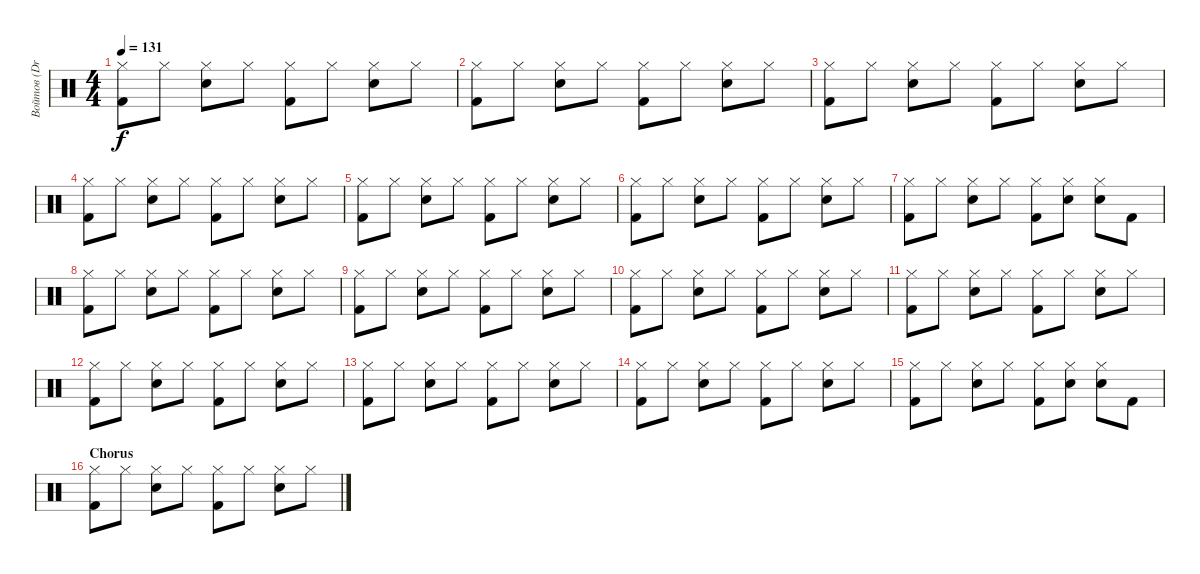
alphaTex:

\track ("Войтов (Drums)" "Войтов (Dr") {instrument percussion}
\staff {score}
\articulation defaults
\ts (4 4)
\tempo 131
\clef neutral
\ks c
("Kick (hit) 2" "Hi-Hat (closed)").8{dy f} "Hi-Hat (closed)".8 ("Electric Snare (hit)" "Hi-Hat (closed)").8 "Hi-Hat (closed)".8 ("Kick (hit) 2" "Hi-Hat (closed)").8 "Hi-Hat (closed)".8 ("Electric Snare (hit)" "Hi-Hat (closed)").8 "Hi-Hat (closed)".8 |
("Kick (hit) 2" "Hi-Hat (closed)").8 "Hi-Hat (closed)".8 ("Electric Snare (hit)" "Hi-Hat (closed)").8 "Hi-Hat (closed)".8 ("Kick (hit) 2" "Hi-Hat (closed)").8 "Hi-Hat (closed)".8 ("Electric Snare (hit)" "Hi-Hat (closed)").8 "Hi-Hat (closed)".8 |
("Kick (hit) 2" "Hi-Hat (closed)").8 "Hi-Hat (closed)".8 ("Electric Snare (hit)" "Hi-Hat (closed)").8 "Hi-Hat (closed)".8 ("Kick (hit) 2" "Hi-Hat (closed)").8 "Hi-Hat (closed)".8 ("Electric Snare (hit)" "Hi-Hat (closed)").8 "Hi-Hat (closed)".8 |
("Kick (hit) 2" "Hi-Hat (closed)").8 "Hi-Hat (closed)".8 ("Electric Snare (hit)" "Hi-Hat (closed)").8 "Hi-Hat (closed)".8 ("Kick (hit) 2" "Hi-Hat (closed)").8 "Hi-Hat (closed)".8 ("Electric Snare (hit)" "Hi-Hat (closed)").8 "Hi-Hat (closed)".8 |
("Kick (hit) 2" "Hi-Hat (closed)").8 "Hi-Hat (closed)".8 ("Electric Snare (hit)" "Hi-Hat (closed)").8 "Hi-Hat (closed)".8 ("Kick (hit) 2" "Hi-Hat (closed)").8 "Hi-Hat (closed)".8 ("Electric Snare (hit)" "Hi-Hat (closed)").8 "Hi-Hat (closed)".8 |
("Kick (hit) 2" "Hi-Hat (closed)").8 "Hi-Hat (closed)".8 ("Electric Snare (hit)" "Hi-Hat (closed)").8 "Hi-Hat (closed)".8 ("Kick (hit) 2" "Hi-Hat (closed)").8 "Hi-Hat (closed)".8 ("Electric Snare (hit)" "Hi-Hat (closed)").8 "Hi-Hat (closed)".8 |
("Kick (hit) 2" "Hi-Hat (closed)").8 "Hi-Hat (closed)".8 ("Electric Snare (hit)" "Hi-Hat (closed)").8 "Hi-Hat (closed)".8 ("Kick (hit) 2" "Hi-Hat (closed)").8 ("Electric Snare (hit)" "Hi-Hat (closed)").8 ("Electric Snare (hit)" "Hi-Hat (closed)").8 "Kick (hit) 2".8 |
("Kick (hit) 2" "Hi-Hat (closed)").8 "Hi-Hat (closed)".8 ("Electric Snare (hit)" "Hi-Hat (closed)").8 "Hi-Hat (closed)".8 ("Kick (hit) 2" "Hi-Hat (closed)").8 "Hi-Hat (closed)".8 ("Electric Snare (hit)" "Hi-Hat (closed)").8 "Hi-Hat (closed)".8 |
("Kick (hit) 2" "Hi-Hat (closed)").8 "Hi-Hat (closed)".8 ("Electric Snare (hit)" "Hi-Hat (closed)").8 "Hi-Hat (closed)".8 ("Kick (hit) 2" "Hi-Hat (closed)").8 "Hi-Hat (closed)".8 ("Electric Snare (hit)" "Hi-Hat (closed)").8 "Hi-Hat (closed)".8 |
("Kick (hit) 2" "Hi-Hat (closed)").8 "Hi-Hat (closed)".8 ("Electric Snare (hit)" "Hi-Hat (closed)").8 "Hi-Hat (closed)".8 ("Kick (hit) 2" "Hi-Hat (closed)").8 "Hi-Hat (closed)".8 ("Electric Snare (hit)" "Hi-Hat (closed)").8 "Hi-Hat (closed)".8 |
("Kick (hit) 2" "Hi-Hat (closed)").8 "Hi-Hat (closed)".8 ("Electric Snare (hit)" "Hi-Hat (closed)").8 "Hi-Hat (closed)".8 ("Kick (hit) 2" "Hi-Hat (closed)").8 "Hi-Hat (closed)".8 ("Electric Snare (hit)" "Hi-Hat (closed)").8 "Hi-Hat (closed)".8 |
("Kick (hit) 2" "Hi-Hat (closed)").8 "Hi-Hat (closed)".8 ("Electric Snare (hit)" "Hi-Hat (closed)").8 "Hi-Hat (closed)".8 ("Kick (hit) 2" "Hi-Hat (closed)").8 "Hi-Hat (closed)".8 ("Electric Snare (hit)" "Hi-Hat (closed)").8 "Hi-Hat (closed)".8 |
("Kick (hit) 2" "Hi-Hat (closed)").8 "Hi-Hat (closed)".8 ("Electric Snare (hit)" "Hi-Hat (closed)").8 "Hi-Hat (closed)".8 ("Kick (hit) 2" "Hi-Hat (closed)").8 "Hi-Hat (closed)".8 ("Electric Snare (hit)" "Hi-Hat (closed)").8 "Hi-Hat (closed)".8 |
("Kick (hit) 2" "Hi-Hat (closed)").8 "Hi-Hat (closed)".8 ("Electric Snare (hit)" "Hi-Hat (closed)").8 "Hi-Hat (closed)".8 ("Kick (hit) 2" "Hi-Hat (closed)").8 "Hi-Hat (closed)".8 ("Electric Snare (hit)" "Hi-Hat (closed)").8 "Hi-Hat (closed)".8 |
("Kick (hit) 2" "Hi-Hat (closed)").8 "Hi-Hat (closed)".8 ("Electric Snare (hit)" "Hi-Hat (closed)").8 "Hi-Hat (closed)".8 ("Kick (hit) 2" "Hi-Hat (closed)").8 ("Electric Snare (hit)" "Hi-Hat (closed)").8 ("Electric Snare (hit)" "Hi-Hat (closed)").8 "Kick (hit) 2".8 |
\section ("" "Chorus")
("Kick (hit) 2" "Hi-Hat (closed)").8 "Hi-Hat (closed)".8 ("Electric Snare (hit)" "Hi-Hat (closed)").8 "Hi-Hat (closed)".8 ("Kick (hit) 2" "Hi-Hat (closed)").8 "Hi-Hat (closed)".8 ("Electric Snare (hit)" "Hi-Hat (closed)").8 "Hi-Hat (closed)".8
